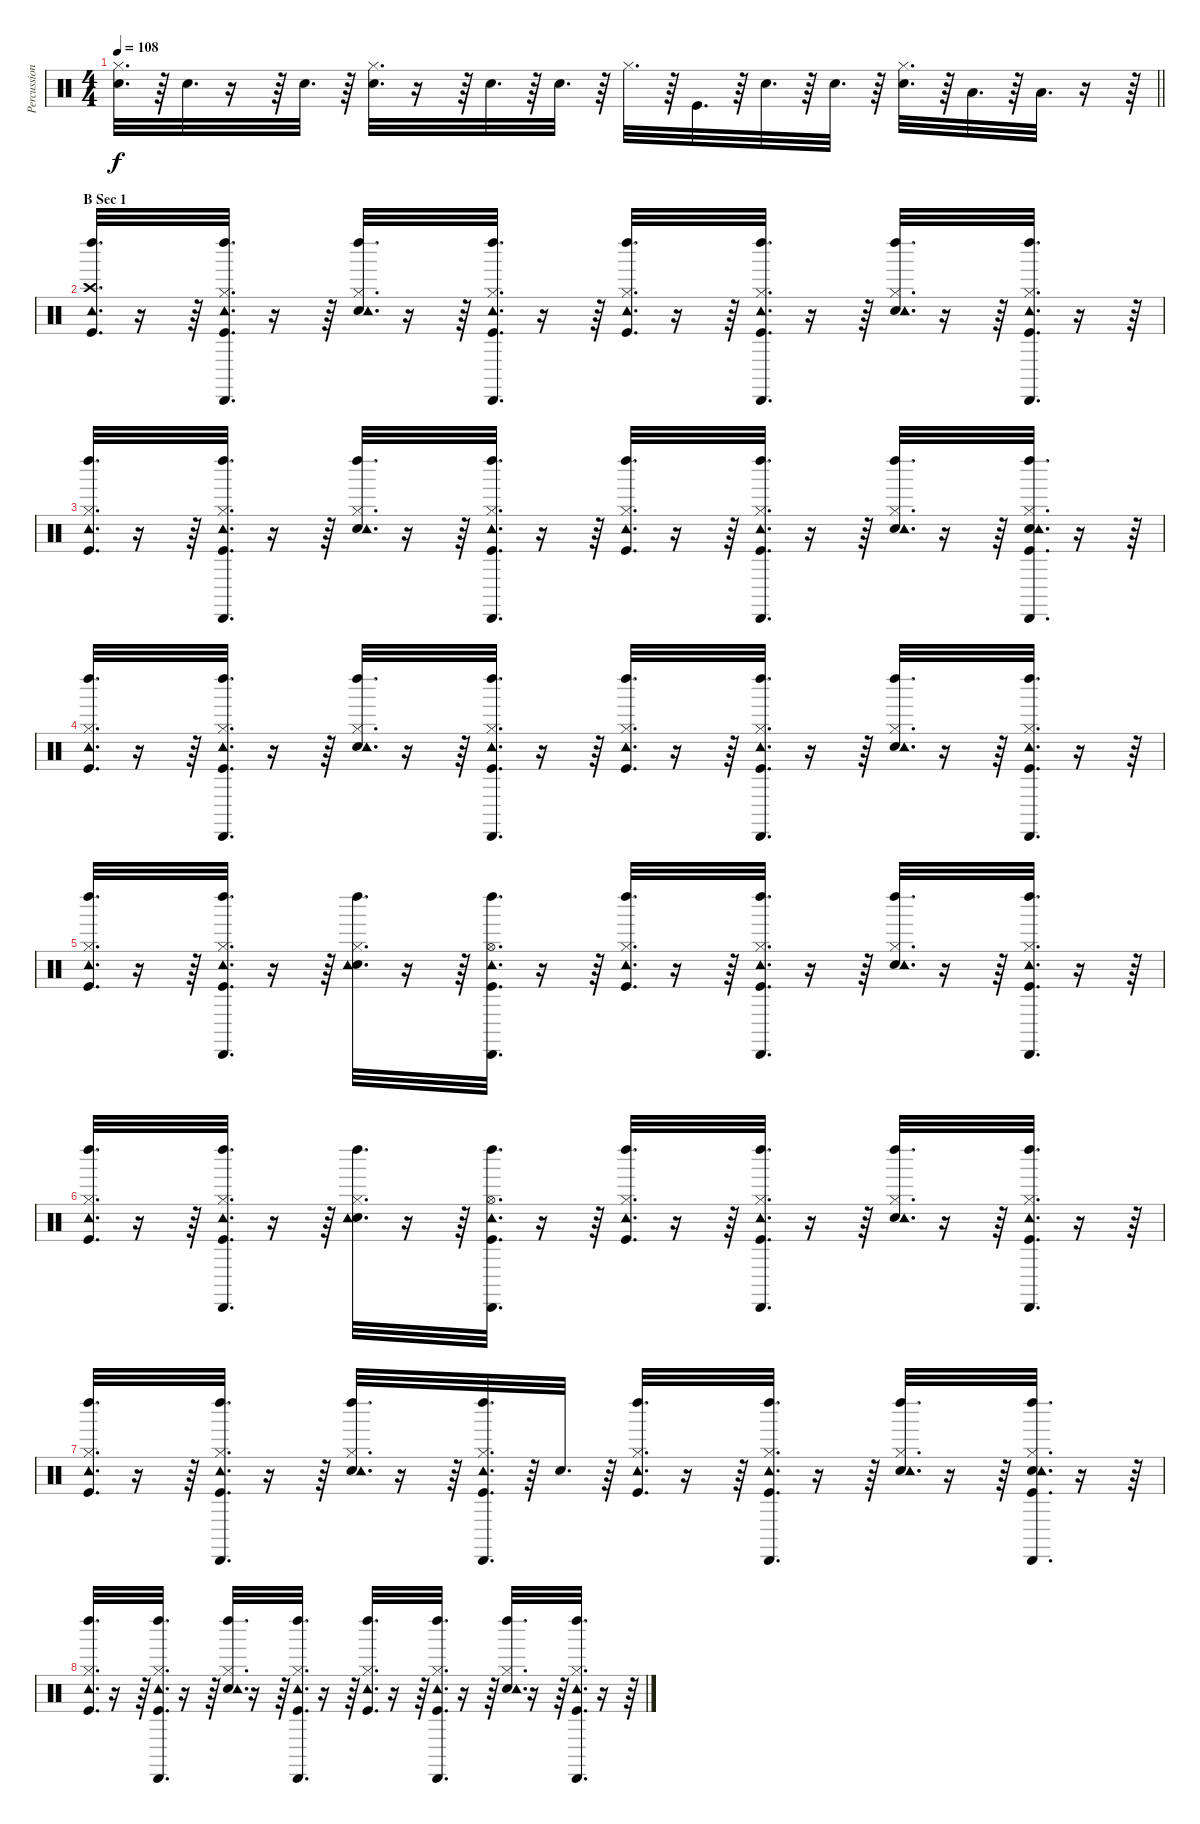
\track ("Percussions" "Percussion") {instrument percussion}
\staff {score}
\articulation defaults
\ts (4 4)
\tempo 108
\clef neutral
\barLineRight lightlight
\ks c
("Hi-Hat (closed)" "Snare (hit) 2").32{d dy f} r.64 "Snare (hit) 2".32{d} r.16 r.64 "Snare (hit) 2".32{d} r.64 ("Hi-Hat (closed)" "Snare (hit) 2").32{d} r.16 r.64 "Snare (hit) 2".32{d} r.64 "Snare (hit) 2".32{d} r.64 "Hi-Hat (closed)".32{d} r.64 "Kick (hit)".32{d} r.64 "Snare (hit) 2".32{d} r.64 "Snare (hit) 2".32{d} r.64 ("Hi-Hat (closed)" "Snare (hit) 2").32{d} r.64 "Low Tom (hit)".32{d} r.64 "Low Tom (hit)".32{d} r.16 r.64 |
\section ("" "B Sec 1")
("Left Maraca (hit)" "Kick (hit)" "Crash high (hit)" "Tambourine (hit)").32{d} r.16 r.64 ("Cabasa (hit)" "Tambourine (hit)" "Kick (hit)" "Hi-Hat (closed)" "Left Maraca (hit)").32{d} r.16 r.64 ("Left Maraca (hit)" "Snare (hit) 2" "Hi-Hat (closed)" "Tambourine (hit)").32{d} r.16 r.64 ("Cabasa (hit)" "Tambourine (hit)" "Kick (hit)" "Hi-Hat (closed)" "Left Maraca (hit)").32{d} r.16 r.64 ("Left Maraca (hit)" "Kick (hit)" "Hi-Hat (closed)" "Tambourine (hit)").32{d} r.16 r.64 ("Cabasa (hit)" "Tambourine (hit)" "Kick (hit)" "Hi-Hat (closed)" "Left Maraca (hit)").32{d} r.16 r.64 ("Left Maraca (hit)" "Snare (hit) 2" "Hi-Hat (closed)" "Tambourine (hit)").32{d} r.16 r.64 ("Cabasa (hit)" "Tambourine (hit)" "Kick (hit)" "Hi-Hat (closed)" "Left Maraca (hit)").32{d} r.16 r.64 |
("Left Maraca (hit)" "Kick (hit)" "Hi-Hat (closed)" "Tambourine (hit)").32{d} r.16 r.64 ("Cabasa (hit)" "Tambourine (hit)" "Kick (hit)" "Hi-Hat (closed)" "Left Maraca (hit)").32{d} r.16 r.64 ("Left Maraca (hit)" "Snare (hit) 2" "Hi-Hat (closed)" "Tambourine (hit)").32{d} r.16 r.64 ("Cabasa (hit)" "Tambourine (hit)" "Kick (hit)" "Hi-Hat (closed)" "Left Maraca (hit)").32{d} r.16 r.64 ("Left Maraca (hit)" "Kick (hit)" "Hi-Hat (closed)" "Tambourine (hit)").32{d} r.16 r.64 ("Cabasa (hit)" "Tambourine (hit)" "Kick (hit)" "Hi-Hat (closed)" "Left Maraca (hit)").32{d} r.16 r.64 ("Left Maraca (hit)" "Snare (hit) 2" "Hi-Hat (closed)" "Tambourine (hit)").32{d} r.16 r.64 ("Cabasa (hit)" "Snare (hit) 2" "Hi-Hat (closed)" "Kick (hit)" "Left Maraca (hit)" "Tambourine (hit)").32{d} r.16 r.64 |
("Left Maraca (hit)" "Kick (hit)" "Hi-Hat (closed)" "Tambourine (hit)").32{d} r.16 r.64 ("Cabasa (hit)" "Tambourine (hit)" "Kick (hit)" "Hi-Hat (closed)" "Left Maraca (hit)").32{d} r.16 r.64 ("Left Maraca (hit)" "Snare (hit) 2" "Hi-Hat (closed)" "Tambourine (hit)").32{d} r.16 r.64 ("Cabasa (hit)" "Tambourine (hit)" "Kick (hit)" "Hi-Hat (closed)" "Left Maraca (hit)").32{d} r.16 r.64 ("Left Maraca (hit)" "Kick (hit)" "Hi-Hat (closed)" "Tambourine (hit)").32{d} r.16 r.64 ("Cabasa (hit)" "Tambourine (hit)" "Kick (hit)" "Hi-Hat (closed)" "Left Maraca (hit)").32{d} r.16 r.64 ("Left Maraca (hit)" "Snare (hit) 2" "Hi-Hat (closed)" "Tambourine (hit)").32{d} r.16 r.64 ("Cabasa (hit)" "Tambourine (hit)" "Kick (hit)" "Hi-Hat (closed)" "Left Maraca (hit)").32{d} r.16 r.64 |
("Left Maraca (hit)" "Kick (hit)" "Hi-Hat (closed)" "Tambourine (hit)").32{d} r.16 r.64 ("Cabasa (hit)" "Tambourine (hit)" "Kick (hit)" "Hi-Hat (closed)" "Left Maraca (hit)").32{d} r.16 r.64 ("Left Maraca (hit)" "Snare (hit) 2" "Hi-Hat (closed)" "Tambourine (hit)").32{d} r.16 r.64 ("Cabasa (hit)" "Tambourine (hit)" "Kick (hit)" "Hi-Hat (open)" "Left Maraca (hit)").32{d} r.16 r.64 ("Left Maraca (hit)" "Kick (hit)" "Hi-Hat (closed)" "Tambourine (hit)").32{d} r.16 r.64 ("Cabasa (hit)" "Tambourine (hit)" "Kick (hit)" "Hi-Hat (closed)" "Left Maraca (hit)").32{d} r.16 r.64 ("Left Maraca (hit)" "Snare (hit) 2" "Hi-Hat (closed)" "Tambourine (hit)").32{d} r.16 r.64 ("Cabasa (hit)" "Tambourine (hit)" "Kick (hit)" "Hi-Hat (closed)" "Left Maraca (hit)").32{d} r.16 r.64 |
("Left Maraca (hit)" "Kick (hit)" "Hi-Hat (closed)" "Tambourine (hit)").32{d} r.16 r.64 ("Cabasa (hit)" "Tambourine (hit)" "Kick (hit)" "Hi-Hat (closed)" "Left Maraca (hit)").32{d} r.16 r.64 ("Left Maraca (hit)" "Snare (hit) 2" "Hi-Hat (closed)" "Tambourine (hit)").32{d} r.16 r.64 ("Cabasa (hit)" "Tambourine (hit)" "Kick (hit)" "Hi-Hat (open)" "Left Maraca (hit)").32{d} r.16 r.64 ("Left Maraca (hit)" "Kick (hit)" "Hi-Hat (closed)" "Tambourine (hit)").32{d} r.16 r.64 ("Cabasa (hit)" "Tambourine (hit)" "Kick (hit)" "Hi-Hat (closed)" "Left Maraca (hit)").32{d} r.16 r.64 ("Left Maraca (hit)" "Snare (hit) 2" "Hi-Hat (closed)" "Tambourine (hit)").32{d} r.16 r.64 ("Cabasa (hit)" "Tambourine (hit)" "Kick (hit)" "Hi-Hat (closed)" "Left Maraca (hit)").32{d} r.16 r.64 |
("Left Maraca (hit)" "Kick (hit)" "Hi-Hat (closed)" "Tambourine (hit)").32{d} r.16 r.64 ("Cabasa (hit)" "Tambourine (hit)" "Kick (hit)" "Hi-Hat (closed)" "Left Maraca (hit)").32{d} r.16 r.64 ("Left Maraca (hit)" "Snare (hit) 2" "Hi-Hat (closed)" "Tambourine (hit)").32{d} r.16 r.64 ("Cabasa (hit)" "Tambourine (hit)" "Kick (hit)" "Hi-Hat (closed)" "Left Maraca (hit)").32{d} r.64 "Snare (hit) 2".32{d} r.64 ("Left Maraca (hit)" "Kick (hit)" "Hi-Hat (closed)" "Tambourine (hit)").32{d} r.16 r.64 ("Cabasa (hit)" "Tambourine (hit)" "Kick (hit)" "Hi-Hat (closed)" "Left Maraca (hit)").32{d} r.16 r.64 ("Left Maraca (hit)" "Snare (hit) 2" "Hi-Hat (closed)" "Tambourine (hit)").32{d} r.16 r.64 ("Cabasa (hit)" "Snare (hit) 2" "Hi-Hat (closed)" "Kick (hit)" "Left Maraca (hit)" "Tambourine (hit)").32{d} r.16 r.64 |
("Left Maraca (hit)" "Kick (hit)" "Hi-Hat (closed)" "Tambourine (hit)").32{d} r.16 r.64 ("Cabasa (hit)" "Tambourine (hit)" "Kick (hit)" "Hi-Hat (closed)" "Left Maraca (hit)").32{d} r.16 r.64 ("Left Maraca (hit)" "Snare (hit) 2" "Hi-Hat (closed)" "Tambourine (hit)").32{d} r.16 r.64 ("Cabasa (hit)" "Tambourine (hit)" "Kick (hit)" "Hi-Hat (closed)" "Left Maraca (hit)").32{d} r.16 r.64 ("Left Maraca (hit)" "Kick (hit)" "Hi-Hat (closed)" "Tambourine (hit)").32{d} r.16 r.64 ("Cabasa (hit)" "Tambourine (hit)" "Kick (hit)" "Hi-Hat (closed)" "Left Maraca (hit)").32{d} r.16 r.64 ("Left Maraca (hit)" "Snare (hit) 2" "Hi-Hat (closed)" "Tambourine (hit)").32{d} r.16 r.64 ("Cabasa (hit)" "Tambourine (hit)" "Kick (hit)" "Hi-Hat (closed)" "Left Maraca (hit)").32{d} r.16 r.64
